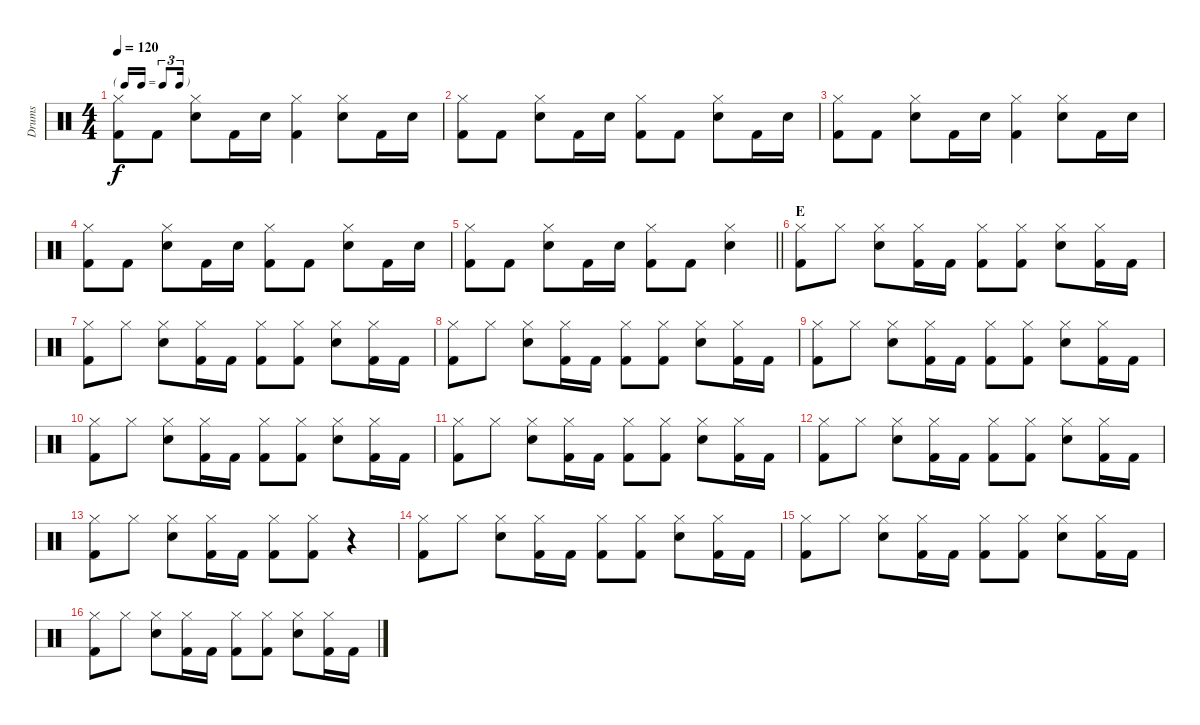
\track ("Drums" "Drums") {instrument percussion}
\staff {score}
\articulation defaults
\ts (4 4)
\tf triplet16th
\tempo 120
\clef neutral
\ks c
("Hi-Hat (closed)" "Kick (hit) 2").8{dy f} "Kick (hit) 2".8 ("Hi-Hat (closed)" "Snare (hit) 2").8 "Kick (hit) 2".16 "Snare (hit) 2".16 ("Hi-Hat (closed)" "Kick (hit) 2").4 ("Hi-Hat (closed)" "Snare (hit) 2").8 "Kick (hit) 2".16 "Snare (hit) 2".16 |
("Hi-Hat (closed)" "Kick (hit) 2").8 "Kick (hit) 2".8 ("Hi-Hat (closed)" "Snare (hit) 2").8 "Kick (hit) 2".16 "Snare (hit) 2".16 ("Hi-Hat (closed)" "Kick (hit) 2").8 "Kick (hit) 2".8 ("Hi-Hat (closed)" "Snare (hit) 2").8 "Kick (hit) 2".16 "Snare (hit) 2".16 |
("Hi-Hat (closed)" "Kick (hit) 2").8 "Kick (hit) 2".8 ("Hi-Hat (closed)" "Snare (hit) 2").8 "Kick (hit) 2".16 "Snare (hit) 2".16 ("Hi-Hat (closed)" "Kick (hit) 2").4 ("Hi-Hat (closed)" "Snare (hit) 2").8 "Kick (hit) 2".16 "Snare (hit) 2".16 |
("Hi-Hat (closed)" "Kick (hit) 2").8 "Kick (hit) 2".8 ("Hi-Hat (closed)" "Snare (hit) 2").8 "Kick (hit) 2".16 "Snare (hit) 2".16 ("Hi-Hat (closed)" "Kick (hit) 2").8 "Kick (hit) 2".8 ("Hi-Hat (closed)" "Snare (hit) 2").8 "Kick (hit) 2".16 "Snare (hit) 2".16 |
\barLineRight lightlight
("Hi-Hat (closed)" "Kick (hit) 2").8 "Kick (hit) 2".8 ("Hi-Hat (closed)" "Snare (hit) 2").8 "Kick (hit) 2".16 "Snare (hit) 2".16 ("Hi-Hat (closed)" "Kick (hit) 2").8 "Kick (hit) 2".8 ("Hi-Hat (closed)" "Snare (hit) 2").4 |
\section ("" "E")
("Hi-Hat (closed)" "Kick (hit) 2").8 "Hi-Hat (closed)".8 ("Hi-Hat (closed)" "Snare (hit) 2").8 ("Hi-Hat (closed)" "Kick (hit) 2").16 "Kick (hit) 2".16 ("Hi-Hat (closed)" "Kick (hit) 2").8 ("Hi-Hat (closed)" "Kick (hit) 2").8 ("Hi-Hat (closed)" "Snare (hit) 2").8 ("Hi-Hat (closed)" "Kick (hit) 2").16 "Kick (hit) 2".16 |
("Hi-Hat (closed)" "Kick (hit) 2").8 "Hi-Hat (closed)".8 ("Hi-Hat (closed)" "Snare (hit) 2").8 ("Hi-Hat (closed)" "Kick (hit) 2").16 "Kick (hit) 2".16 ("Hi-Hat (closed)" "Kick (hit) 2").8 ("Hi-Hat (closed)" "Kick (hit) 2").8 ("Hi-Hat (closed)" "Snare (hit) 2").8 ("Hi-Hat (closed)" "Kick (hit) 2").16 "Kick (hit) 2".16 |
("Hi-Hat (closed)" "Kick (hit) 2").8 "Hi-Hat (closed)".8 ("Hi-Hat (closed)" "Snare (hit) 2").8 ("Hi-Hat (closed)" "Kick (hit) 2").16 "Kick (hit) 2".16 ("Hi-Hat (closed)" "Kick (hit) 2").8 ("Hi-Hat (closed)" "Kick (hit) 2").8 ("Hi-Hat (closed)" "Snare (hit) 2").8 ("Hi-Hat (closed)" "Kick (hit) 2").16 "Kick (hit) 2".16 |
("Hi-Hat (closed)" "Kick (hit) 2").8 "Hi-Hat (closed)".8 ("Hi-Hat (closed)" "Snare (hit) 2").8 ("Hi-Hat (closed)" "Kick (hit) 2").16 "Kick (hit) 2".16 ("Hi-Hat (closed)" "Kick (hit) 2").8 ("Hi-Hat (closed)" "Kick (hit) 2").8 ("Hi-Hat (closed)" "Snare (hit) 2").8 ("Hi-Hat (closed)" "Kick (hit) 2").16 "Kick (hit) 2".16 |
("Hi-Hat (closed)" "Kick (hit) 2").8 "Hi-Hat (closed)".8 ("Hi-Hat (closed)" "Snare (hit) 2").8 ("Hi-Hat (closed)" "Kick (hit) 2").16 "Kick (hit) 2".16 ("Hi-Hat (closed)" "Kick (hit) 2").8 ("Hi-Hat (closed)" "Kick (hit) 2").8 ("Hi-Hat (closed)" "Snare (hit) 2").8 ("Hi-Hat (closed)" "Kick (hit) 2").16 "Kick (hit) 2".16 |
("Hi-Hat (closed)" "Kick (hit) 2").8 "Hi-Hat (closed)".8 ("Hi-Hat (closed)" "Snare (hit) 2").8 ("Hi-Hat (closed)" "Kick (hit) 2").16 "Kick (hit) 2".16 ("Hi-Hat (closed)" "Kick (hit) 2").8 ("Hi-Hat (closed)" "Kick (hit) 2").8 ("Hi-Hat (closed)" "Snare (hit) 2").8 ("Hi-Hat (closed)" "Kick (hit) 2").16 "Kick (hit) 2".16 |
("Hi-Hat (closed)" "Kick (hit) 2").8 "Hi-Hat (closed)".8 ("Hi-Hat (closed)" "Snare (hit) 2").8 ("Hi-Hat (closed)" "Kick (hit) 2").16 "Kick (hit) 2".16 ("Hi-Hat (closed)" "Kick (hit) 2").8 ("Hi-Hat (closed)" "Kick (hit) 2").8 ("Hi-Hat (closed)" "Snare (hit) 2").8 ("Hi-Hat (closed)" "Kick (hit) 2").16 "Kick (hit) 2".16 |
("Hi-Hat (closed)" "Kick (hit) 2").8 "Hi-Hat (closed)".8 ("Hi-Hat (closed)" "Snare (hit) 2").8 ("Hi-Hat (closed)" "Kick (hit) 2").16 "Kick (hit) 2".16 ("Hi-Hat (closed)" "Kick (hit) 2").8 ("Hi-Hat (closed)" "Kick (hit) 2").8 r.4 |
("Hi-Hat (closed)" "Kick (hit) 2").8 "Hi-Hat (closed)".8 ("Hi-Hat (closed)" "Snare (hit) 2").8 ("Hi-Hat (closed)" "Kick (hit) 2").16 "Kick (hit) 2".16 ("Hi-Hat (closed)" "Kick (hit) 2").8 ("Hi-Hat (closed)" "Kick (hit) 2").8 ("Hi-Hat (closed)" "Snare (hit) 2").8 ("Hi-Hat (closed)" "Kick (hit) 2").16 "Kick (hit) 2".16 |
("Hi-Hat (closed)" "Kick (hit) 2").8 "Hi-Hat (closed)".8 ("Hi-Hat (closed)" "Snare (hit) 2").8 ("Hi-Hat (closed)" "Kick (hit) 2").16 "Kick (hit) 2".16 ("Hi-Hat (closed)" "Kick (hit) 2").8 ("Hi-Hat (closed)" "Kick (hit) 2").8 ("Hi-Hat (closed)" "Snare (hit) 2").8 ("Hi-Hat (closed)" "Kick (hit) 2").16 "Kick (hit) 2".16 |
("Hi-Hat (closed)" "Kick (hit) 2").8 "Hi-Hat (closed)".8 ("Hi-Hat (closed)" "Snare (hit) 2").8 ("Hi-Hat (closed)" "Kick (hit) 2").16 "Kick (hit) 2".16 ("Hi-Hat (closed)" "Kick (hit) 2").8 ("Hi-Hat (closed)" "Kick (hit) 2").8 ("Hi-Hat (closed)" "Snare (hit) 2").8 ("Hi-Hat (closed)" "Kick (hit) 2").16 "Kick (hit) 2".16
